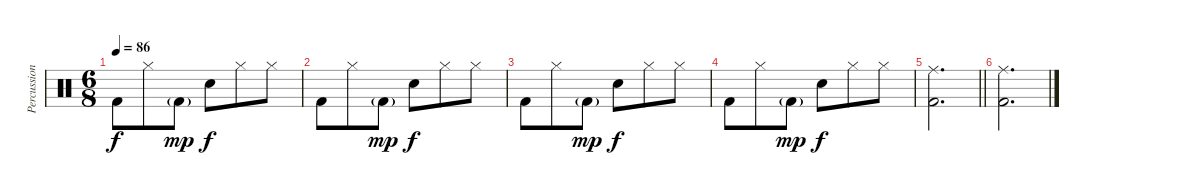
\track ("Percussion" "Percussion") {instrument percussion}
\staff {score}
\articulation defaults
\ts (6 8)
\tempo 86
\clef neutral
\ks c "Kick (hit) 2".8{dy f} "Hi-Hat (closed)".8 "Kick (hit) 2"{g}.8{dy mp} "Snare (hit) 2".8{dy f} "Hi-Hat (closed)".8 "Hi-Hat (closed)".8
|
"Kick (hit) 2".8 "Hi-Hat (closed)".8 "Kick (hit) 2"{g}.8{dy mp} "Snare (hit) 2".8{dy f} "Hi-Hat (closed)".8 "Hi-Hat (closed)".8 |
"Kick (hit) 2".8 "Hi-Hat (closed)".8 "Kick (hit) 2"{g}.8{dy mp} "Snare (hit) 2".8{dy f} "Hi-Hat (closed)".8 "Hi-Hat (closed)".8 |
"Kick (hit) 2".8 "Hi-Hat (closed)".8 "Kick (hit) 2"{g}.8{dy mp} "Snare (hit) 2".8{dy f} "Hi-Hat (closed)".8 "Hi-Hat (closed)".8 |
\barLineRight lightlight
("Ride (middle)" "Kick (hit) 2").2{d} |
("Ride (middle)" "Kick (hit) 2").2{d}
